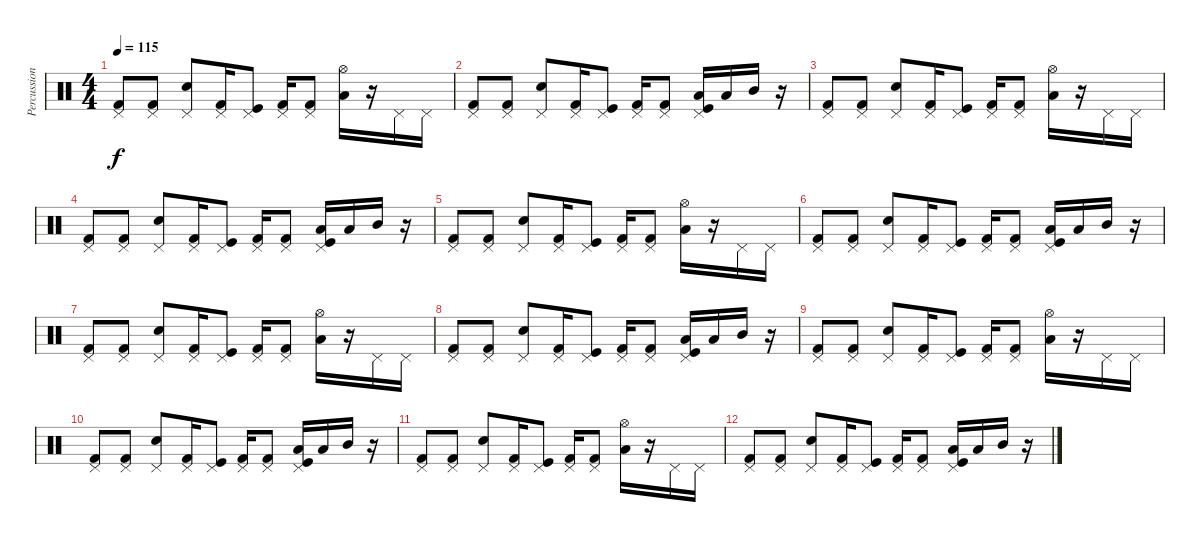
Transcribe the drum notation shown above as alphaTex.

\track ("Percussions" "Percussion") {instrument percussion}
\staff {score}
\articulation defaults
\ts (4 4)
\tempo 115
\clef neutral
\ks c
("Kick (hit) 2" "Pedal Hi-Hat (hit)").8{dy f} ("Kick (hit) 2" "Pedal Hi-Hat (hit)").8 ("Snare (hit) 2" "Pedal Hi-Hat (hit)").8 ("Kick (hit) 2" "Pedal Hi-Hat (hit)").16 ("Kick (hit)" "Pedal Hi-Hat (hit)").8 ("Kick (hit) 2" "Pedal Hi-Hat (hit)").16 ("Kick (hit) 2" "Pedal Hi-Hat (hit)").8 ("Low Tom (hit)" "Hi-Hat (open)").16 r.16 "Pedal Hi-Hat (hit)".16 "Pedal Hi-Hat (hit)".16 |
("Kick (hit) 2" "Pedal Hi-Hat (hit)").8 ("Kick (hit) 2" "Pedal Hi-Hat (hit)").8 ("Snare (hit) 2" "Pedal Hi-Hat (hit)").8 ("Kick (hit) 2" "Pedal Hi-Hat (hit)").16 ("Kick (hit)" "Pedal Hi-Hat (hit)").8 ("Kick (hit) 2" "Pedal Hi-Hat (hit)").16 ("Kick (hit) 2" "Pedal Hi-Hat (hit)").8 ("Kick (hit)" "Pedal Hi-Hat (hit)" "Low Tom (hit)").16 "Low Tom (hit)".16 "Mid Tom (hit)".16 r.16 |
("Kick (hit) 2" "Pedal Hi-Hat (hit)").8 ("Kick (hit) 2" "Pedal Hi-Hat (hit)").8 ("Snare (hit) 2" "Pedal Hi-Hat (hit)").8 ("Kick (hit) 2" "Pedal Hi-Hat (hit)").16 ("Kick (hit)" "Pedal Hi-Hat (hit)").8 ("Kick (hit) 2" "Pedal Hi-Hat (hit)").16 ("Kick (hit) 2" "Pedal Hi-Hat (hit)").8 ("Low Tom (hit)" "Hi-Hat (open)").16 r.16 "Pedal Hi-Hat (hit)".16 "Pedal Hi-Hat (hit)".16 |
("Kick (hit) 2" "Pedal Hi-Hat (hit)").8 ("Kick (hit) 2" "Pedal Hi-Hat (hit)").8 ("Snare (hit) 2" "Pedal Hi-Hat (hit)").8 ("Kick (hit) 2" "Pedal Hi-Hat (hit)").16 ("Kick (hit)" "Pedal Hi-Hat (hit)").8 ("Kick (hit) 2" "Pedal Hi-Hat (hit)").16 ("Kick (hit) 2" "Pedal Hi-Hat (hit)").8 ("Kick (hit)" "Pedal Hi-Hat (hit)" "Low Tom (hit)").16 "Low Tom (hit)".16 "Mid Tom (hit)".16 r.16 |
("Kick (hit) 2" "Pedal Hi-Hat (hit)").8 ("Kick (hit) 2" "Pedal Hi-Hat (hit)").8 ("Snare (hit) 2" "Pedal Hi-Hat (hit)").8 ("Kick (hit) 2" "Pedal Hi-Hat (hit)").16 ("Kick (hit)" "Pedal Hi-Hat (hit)").8 ("Kick (hit) 2" "Pedal Hi-Hat (hit)").16 ("Kick (hit) 2" "Pedal Hi-Hat (hit)").8 ("Low Tom (hit)" "Hi-Hat (open)").16 r.16 "Pedal Hi-Hat (hit)".16 "Pedal Hi-Hat (hit)".16 |
("Kick (hit) 2" "Pedal Hi-Hat (hit)").8 ("Kick (hit) 2" "Pedal Hi-Hat (hit)").8 ("Snare (hit) 2" "Pedal Hi-Hat (hit)").8 ("Kick (hit) 2" "Pedal Hi-Hat (hit)").16 ("Kick (hit)" "Pedal Hi-Hat (hit)").8 ("Kick (hit) 2" "Pedal Hi-Hat (hit)").16 ("Kick (hit) 2" "Pedal Hi-Hat (hit)").8 ("Kick (hit)" "Pedal Hi-Hat (hit)" "Low Tom (hit)").16 "Low Tom (hit)".16 "Mid Tom (hit)".16 r.16 |
("Kick (hit) 2" "Pedal Hi-Hat (hit)").8 ("Kick (hit) 2" "Pedal Hi-Hat (hit)").8 ("Snare (hit) 2" "Pedal Hi-Hat (hit)").8 ("Kick (hit) 2" "Pedal Hi-Hat (hit)").16 ("Kick (hit)" "Pedal Hi-Hat (hit)").8 ("Kick (hit) 2" "Pedal Hi-Hat (hit)").16 ("Kick (hit) 2" "Pedal Hi-Hat (hit)").8 ("Low Tom (hit)" "Hi-Hat (open)").16 r.16 "Pedal Hi-Hat (hit)".16 "Pedal Hi-Hat (hit)".16 |
("Kick (hit) 2" "Pedal Hi-Hat (hit)").8 ("Kick (hit) 2" "Pedal Hi-Hat (hit)").8 ("Snare (hit) 2" "Pedal Hi-Hat (hit)").8 ("Kick (hit) 2" "Pedal Hi-Hat (hit)").16 ("Kick (hit)" "Pedal Hi-Hat (hit)").8 ("Kick (hit) 2" "Pedal Hi-Hat (hit)").16 ("Kick (hit) 2" "Pedal Hi-Hat (hit)").8 ("Kick (hit)" "Pedal Hi-Hat (hit)" "Low Tom (hit)").16 "Low Tom (hit)".16 "Mid Tom (hit)".16 r.16 |
("Kick (hit) 2" "Pedal Hi-Hat (hit)").8{volume 0} ("Kick (hit) 2" "Pedal Hi-Hat (hit)").8 ("Snare (hit) 2" "Pedal Hi-Hat (hit)").8 ("Kick (hit) 2" "Pedal Hi-Hat (hit)").16 ("Kick (hit)" "Pedal Hi-Hat (hit)").8 ("Kick (hit) 2" "Pedal Hi-Hat (hit)").16 ("Kick (hit) 2" "Pedal Hi-Hat (hit)").8 ("Low Tom (hit)" "Hi-Hat (open)").16 r.16 "Pedal Hi-Hat (hit)".16 "Pedal Hi-Hat (hit)".16 |
("Kick (hit) 2" "Pedal Hi-Hat (hit)").8 ("Kick (hit) 2" "Pedal Hi-Hat (hit)").8 ("Snare (hit) 2" "Pedal Hi-Hat (hit)").8 ("Kick (hit) 2" "Pedal Hi-Hat (hit)").16 ("Kick (hit)" "Pedal Hi-Hat (hit)").8 ("Kick (hit) 2" "Pedal Hi-Hat (hit)").16 ("Kick (hit) 2" "Pedal Hi-Hat (hit)").8 ("Kick (hit)" "Pedal Hi-Hat (hit)" "Low Tom (hit)").16 "Low Tom (hit)".16 "Mid Tom (hit)".16 r.16 |
("Kick (hit) 2" "Pedal Hi-Hat (hit)").8 ("Kick (hit) 2" "Pedal Hi-Hat (hit)").8 ("Snare (hit) 2" "Pedal Hi-Hat (hit)").8 ("Kick (hit) 2" "Pedal Hi-Hat (hit)").16 ("Kick (hit)" "Pedal Hi-Hat (hit)").8 ("Kick (hit) 2" "Pedal Hi-Hat (hit)").16 ("Kick (hit) 2" "Pedal Hi-Hat (hit)").8 ("Low Tom (hit)" "Hi-Hat (open)").16 r.16 "Pedal Hi-Hat (hit)".16 "Pedal Hi-Hat (hit)".16 |
("Kick (hit) 2" "Pedal Hi-Hat (hit)").8 ("Kick (hit) 2" "Pedal Hi-Hat (hit)").8 ("Snare (hit) 2" "Pedal Hi-Hat (hit)").8 ("Kick (hit) 2" "Pedal Hi-Hat (hit)").16 ("Kick (hit)" "Pedal Hi-Hat (hit)").8 ("Kick (hit) 2" "Pedal Hi-Hat (hit)").16 ("Kick (hit) 2" "Pedal Hi-Hat (hit)").8 ("Kick (hit)" "Pedal Hi-Hat (hit)" "Low Tom (hit)").16 "Low Tom (hit)".16 "Mid Tom (hit)".16 r.16
